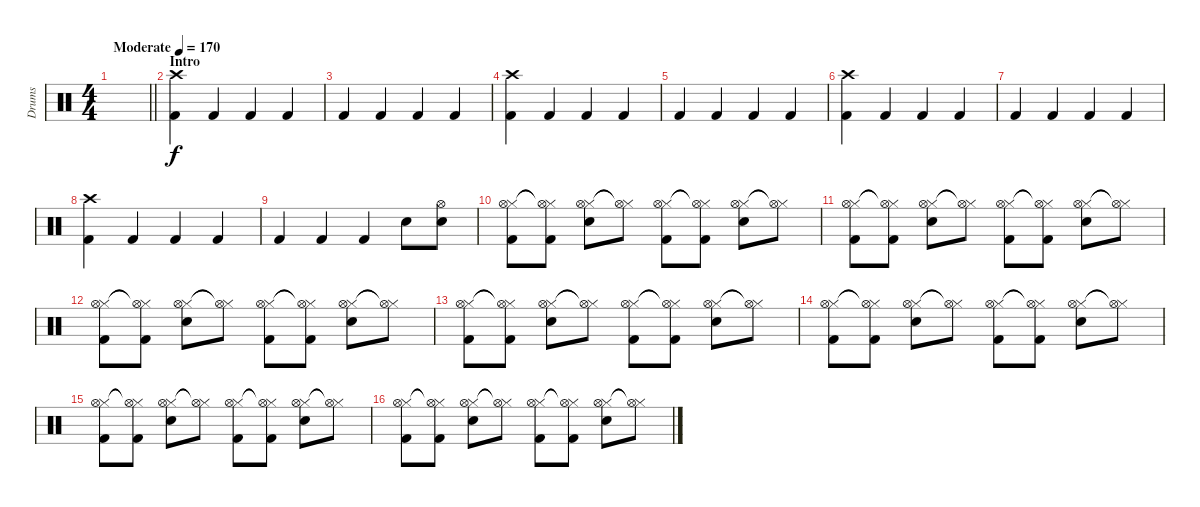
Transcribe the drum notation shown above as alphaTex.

\track ("Drums" "Drums") {instrument percussion}
\staff {score}
\articulation defaults
\ts (4 4)
\tempo (170 "Moderate")
\clef neutral
\barLineRight lightlight
\ks c
|
\section ("" "Intro")
("Crash high (hit)" "Kick (hit) 2").4 "Kick (hit) 2".4 "Kick (hit) 2".4 "Kick (hit) 2".4 |
"Kick (hit) 2".4 "Kick (hit) 2".4 "Kick (hit) 2".4 "Kick (hit) 2".4 |
("Crash high (hit)" "Kick (hit) 2").4 "Kick (hit) 2".4 "Kick (hit) 2".4 "Kick (hit) 2".4 |
"Kick (hit) 2".4 "Kick (hit) 2".4 "Kick (hit) 2".4 "Kick (hit) 2".4 |
("Crash high (hit)" "Kick (hit) 2").4 "Kick (hit) 2".4 "Kick (hit) 2".4 "Kick (hit) 2".4 |
"Kick (hit) 2".4 "Kick (hit) 2".4 "Kick (hit) 2".4 "Kick (hit) 2".4 |
("Crash high (hit)" "Kick (hit) 2").4 "Kick (hit) 2".4 "Kick (hit) 2".4 "Kick (hit) 2".4 |
"Kick (hit) 2".4 "Kick (hit) 2".4 "Kick (hit) 2".4 "Snare (hit) 2".8 ("Hi-Hat (open)" "Snare (hit) 2").8 |
("Hi-Hat (closed)" "Hi-Hat (open)" "Kick (hit) 2").8 ("Hi-Hat (closed)"{t} "Hi-Hat (open)"{t} "Kick (hit) 2").8 ("Hi-Hat (closed)" "Hi-Hat (open)" "Snare (hit) 2").8 ("Hi-Hat (closed)"{t} "Hi-Hat (open)"{t}).8 ("Hi-Hat (closed)" "Hi-Hat (open)" "Kick (hit) 2").8 ("Hi-Hat (closed)"{t} "Hi-Hat (open)"{t} "Kick (hit) 2").8 ("Hi-Hat (closed)" "Hi-Hat (open)" "Snare (hit) 2").8 ("Hi-Hat (closed)"{t} "Hi-Hat (open)"{t}).8 |
("Hi-Hat (closed)" "Hi-Hat (open)" "Kick (hit) 2").8 ("Hi-Hat (closed)"{t} "Hi-Hat (open)"{t} "Kick (hit) 2").8 ("Hi-Hat (closed)" "Hi-Hat (open)" "Snare (hit) 2").8 ("Hi-Hat (closed)"{t} "Hi-Hat (open)"{t}).8 ("Hi-Hat (closed)" "Hi-Hat (open)" "Kick (hit) 2").8 ("Hi-Hat (closed)"{t} "Hi-Hat (open)"{t} "Kick (hit) 2").8 ("Hi-Hat (closed)" "Hi-Hat (open)" "Snare (hit) 2").8 ("Hi-Hat (closed)"{t} "Hi-Hat (open)"{t}).8 |
("Hi-Hat (closed)" "Hi-Hat (open)" "Kick (hit) 2").8 ("Hi-Hat (closed)"{t} "Hi-Hat (open)"{t} "Kick (hit) 2").8 ("Hi-Hat (closed)" "Hi-Hat (open)" "Snare (hit) 2").8 ("Hi-Hat (closed)"{t} "Hi-Hat (open)"{t}).8 ("Hi-Hat (closed)" "Hi-Hat (open)" "Kick (hit) 2").8 ("Hi-Hat (closed)"{t} "Hi-Hat (open)"{t} "Kick (hit) 2").8 ("Hi-Hat (closed)" "Hi-Hat (open)" "Snare (hit) 2").8 ("Hi-Hat (closed)"{t} "Hi-Hat (open)"{t}).8 |
("Hi-Hat (closed)" "Hi-Hat (open)" "Kick (hit) 2").8 ("Hi-Hat (closed)"{t} "Hi-Hat (open)"{t} "Kick (hit) 2").8 ("Hi-Hat (closed)" "Hi-Hat (open)" "Snare (hit) 2").8 ("Hi-Hat (closed)"{t} "Hi-Hat (open)"{t}).8 ("Hi-Hat (closed)" "Hi-Hat (open)" "Kick (hit) 2").8 ("Hi-Hat (closed)"{t} "Hi-Hat (open)"{t} "Kick (hit) 2").8 ("Hi-Hat (closed)" "Hi-Hat (open)" "Snare (hit) 2").8 ("Hi-Hat (closed)"{t} "Hi-Hat (open)"{t}).8 |
("Hi-Hat (closed)" "Hi-Hat (open)" "Kick (hit) 2").8 ("Hi-Hat (closed)"{t} "Hi-Hat (open)"{t} "Kick (hit) 2").8 ("Hi-Hat (closed)" "Hi-Hat (open)" "Snare (hit) 2").8 ("Hi-Hat (closed)"{t} "Hi-Hat (open)"{t}).8 ("Hi-Hat (closed)" "Hi-Hat (open)" "Kick (hit) 2").8 ("Hi-Hat (closed)"{t} "Hi-Hat (open)"{t} "Kick (hit) 2").8 ("Hi-Hat (closed)" "Hi-Hat (open)" "Snare (hit) 2").8 ("Hi-Hat (closed)"{t} "Hi-Hat (open)"{t}).8 |
("Hi-Hat (closed)" "Hi-Hat (open)" "Kick (hit) 2").8 ("Hi-Hat (closed)"{t} "Hi-Hat (open)"{t} "Kick (hit) 2").8 ("Hi-Hat (closed)" "Hi-Hat (open)" "Snare (hit) 2").8 ("Hi-Hat (closed)"{t} "Hi-Hat (open)"{t}).8 ("Hi-Hat (closed)" "Hi-Hat (open)" "Kick (hit) 2").8 ("Hi-Hat (closed)"{t} "Hi-Hat (open)"{t} "Kick (hit) 2").8 ("Hi-Hat (closed)" "Hi-Hat (open)" "Snare (hit) 2").8 ("Hi-Hat (closed)"{t} "Hi-Hat (open)"{t}).8 |
("Hi-Hat (closed)" "Hi-Hat (open)" "Kick (hit) 2").8 ("Hi-Hat (closed)"{t} "Hi-Hat (open)"{t} "Kick (hit) 2").8 ("Hi-Hat (closed)" "Hi-Hat (open)" "Snare (hit) 2").8 ("Hi-Hat (closed)"{t} "Hi-Hat (open)"{t}).8 ("Hi-Hat (closed)" "Hi-Hat (open)" "Kick (hit) 2").8 ("Hi-Hat (closed)"{t} "Hi-Hat (open)"{t} "Kick (hit) 2").8 ("Hi-Hat (closed)" "Hi-Hat (open)" "Snare (hit) 2").8 ("Hi-Hat (closed)"{t} "Hi-Hat (open)"{t}).8
